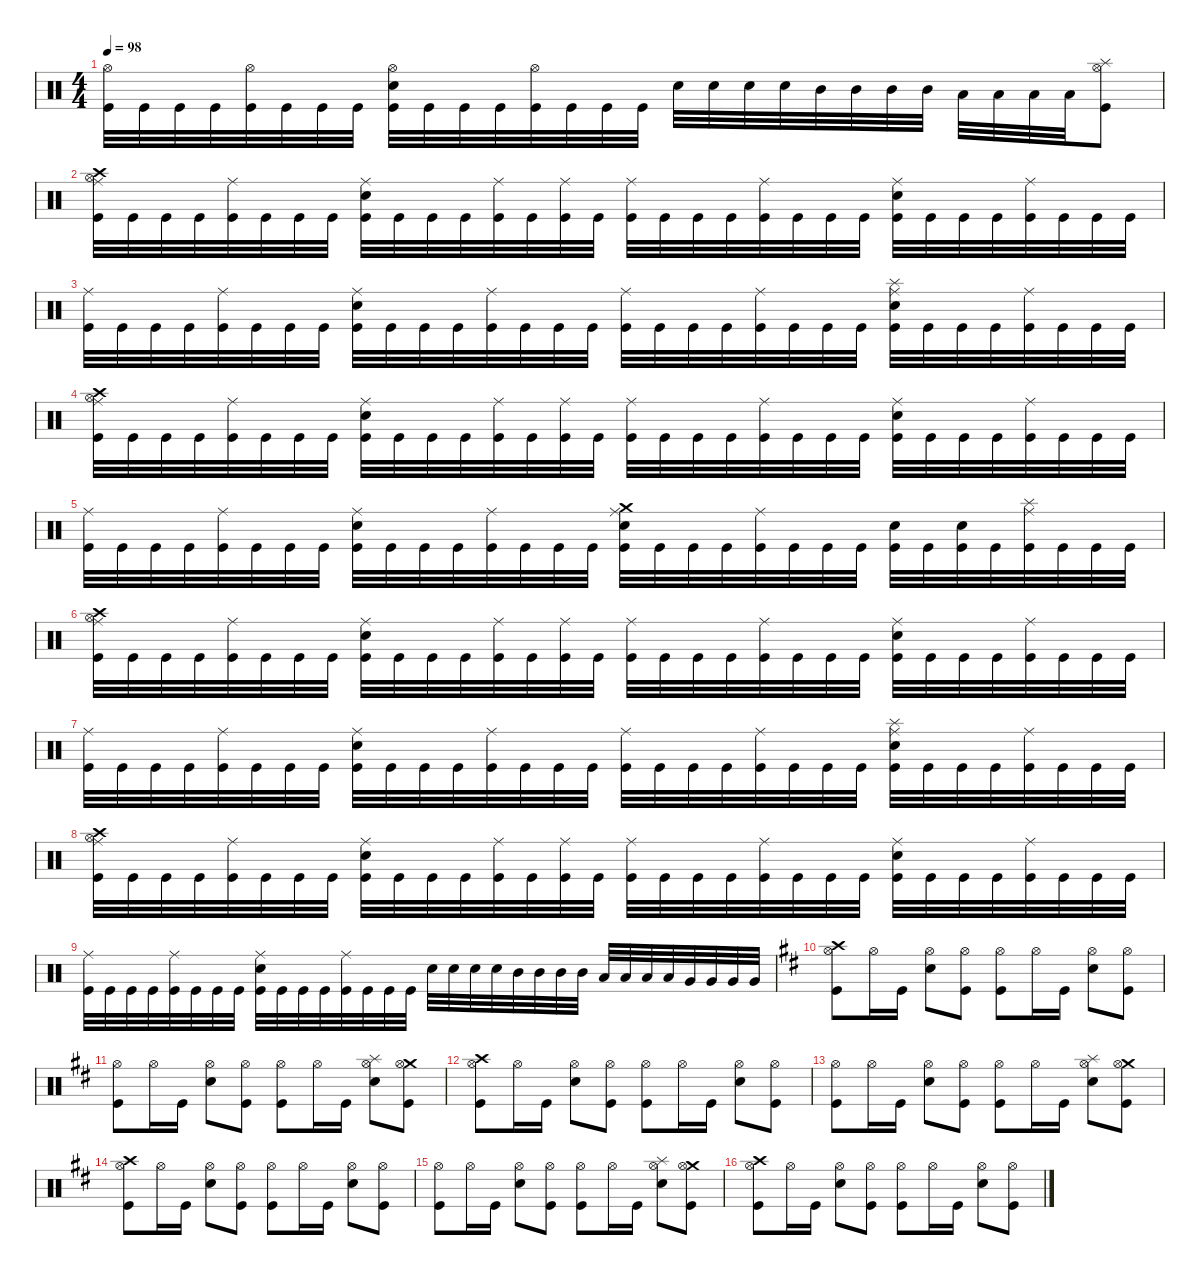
\defaultSystemsLayout 4
\hideDynamics
\bracketExtendMode nobrackets
\singleTrackTrackNamePolicy hidden
\multiTrackTrackNamePolicy hidden
\firstSystemTrackNameMode fullname
\otherSystemsTrackNameOrientation horizontal
\track ("Drums" "drm.") {instrument percussion}
\staff {score}
\articulation defaults
\ts (4 4)
\tempo 98
\clef neutral
\ks c
("Hi-Hat (open)" "Kick (hit)").32{dy f beam Down} "Kick (hit)".32{beam Down} "Kick (hit)".32{beam Down} "Kick (hit)".32{beam Down} ("Hi-Hat (open)" "Kick (hit)").32{beam Down} "Kick (hit)".32{beam Down} "Kick (hit)".32{beam Down} "Kick (hit)".32{beam Down} ("Hi-Hat (open)" "Snare (hit) 2" "Kick (hit)").32{beam Down} "Kick (hit)".32{beam Down} "Kick (hit)".32{beam Down} "Kick (hit)".32{beam Down} ("Hi-Hat (open)" "Kick (hit)").32{beam Down} "Kick (hit)".32{beam Down} "Kick (hit)".32{beam Down} "Kick (hit)".32{beam Down} "Snare (hit) 2".32{beam Down} "Snare (hit) 2".32{beam Down} "Snare (hit) 2".32{beam Down} "Snare (hit) 2".32{dy mp beam Down} "Mid Tom (hit)".32{dy f beam Down} "Mid Tom (hit)".32{beam Down} "Mid Tom (hit)".32{beam Down} "Mid Tom (hit)".32{dy mp beam Down} "Low Tom (hit)".32{dy f beam Down} "Low Tom (hit)".32{beam Down} "Low Tom (hit)".32{beam Down} "Low Tom (hit)".32{dy mp beam Down} ("Splash (hit)" "Hi-Hat (open)" "Kick (hit)").8{dy f beam Down} |
("Crash high (hit)" "Hi-Hat (open)" "Ride (middle)" "Kick (hit)").32{beam Down} "Kick (hit)".32{beam Down} "Kick (hit)".32{beam Down} "Kick (hit)".32{beam Down} ("Ride (middle)" "Kick (hit)").32{beam Down} "Kick (hit)".32{beam Down} "Kick (hit)".32{beam Down} "Kick (hit)".32{beam Down} ("Ride (middle)" "Snare (hit) 2" "Kick (hit)").32{beam Down} "Kick (hit)".32{beam Down} "Kick (hit)".32{beam Down} "Kick (hit)".32{beam Down} ("Ride (middle)" "Kick (hit)").32{beam Down} "Kick (hit)".32{beam Down} ("Ride (middle)" "Kick (hit)").32{beam Down} "Kick (hit)".32{beam Down} ("Ride (middle)" "Kick (hit)").32{beam Down} "Kick (hit)".32{beam Down} "Kick (hit)".32{beam Down} "Kick (hit)".32{beam Down} ("Ride (middle)" "Kick (hit)").32{beam Down} "Kick (hit)".32{beam Down} "Kick (hit)".32{beam Down} "Kick (hit)".32{beam Down} ("Ride (middle)" "Snare (hit) 2" "Kick (hit)").32{beam Down} "Kick (hit)".32{beam Down} "Kick (hit)".32{beam Down} "Kick (hit)".32{beam Down} ("Ride (middle)" "Kick (hit)").32{beam Down} "Kick (hit)".32{beam Down} "Kick (hit)".32{beam Down} "Kick (hit)".32{beam Down} |
("Ride (middle)" "Kick (hit)").32{beam Down} "Kick (hit)".32{beam Down} "Kick (hit)".32{beam Down} "Kick (hit)".32{beam Down} ("Ride (middle)" "Kick (hit)").32{beam Down} "Kick (hit)".32{beam Down} "Kick (hit)".32{beam Down} "Kick (hit)".32{beam Down} ("Ride (middle)" "Snare (hit) 2" "Kick (hit)").32{beam Down} "Kick (hit)".32{beam Down} "Kick (hit)".32{beam Down} "Kick (hit)".32{beam Down} ("Ride (middle)" "Kick (hit)").32{beam Down} "Kick (hit)".32{beam Down} "Kick (hit)".32{beam Down} "Kick (hit)".32{beam Down} ("Ride (middle)" "Kick (hit)").32{beam Down} "Kick (hit)".32{beam Down} "Kick (hit)".32{beam Down} "Kick (hit)".32{beam Down} ("Ride (middle)" "Kick (hit)").32{beam Down} "Kick (hit)".32{beam Down} "Kick (hit)".32{beam Down} "Kick (hit)".32{beam Down} ("Ride (middle)" "Splash (hit)" "Snare (hit) 2" "Kick (hit)").32{beam Down} "Kick (hit)".32{beam Down} "Kick (hit)".32{beam Down} "Kick (hit)".32{beam Down} ("Ride (middle)" "Kick (hit)").32{beam Down} "Kick (hit)".32{beam Down} "Kick (hit)".32{beam Down} "Kick (hit)".32{beam Down} |
("Crash high (hit)" "Hi-Hat (open)" "Ride (middle)" "Kick (hit)").32{beam Down} "Kick (hit)".32{beam Down} "Kick (hit)".32{beam Down} "Kick (hit)".32{beam Down} ("Ride (middle)" "Kick (hit)").32{beam Down} "Kick (hit)".32{beam Down} "Kick (hit)".32{beam Down} "Kick (hit)".32{beam Down} ("Ride (middle)" "Snare (hit) 2" "Kick (hit)").32{beam Down} "Kick (hit)".32{beam Down} "Kick (hit)".32{beam Down} "Kick (hit)".32{beam Down} ("Ride (middle)" "Kick (hit)").32{beam Down} "Kick (hit)".32{beam Down} ("Ride (middle)" "Kick (hit)").32{beam Down} "Kick (hit)".32{beam Down} ("Ride (middle)" "Kick (hit)").32{beam Down} "Kick (hit)".32{beam Down} "Kick (hit)".32{beam Down} "Kick (hit)".32{beam Down} ("Ride (middle)" "Kick (hit)").32{beam Down} "Kick (hit)".32{beam Down} "Kick (hit)".32{beam Down} "Kick (hit)".32{beam Down} ("Ride (middle)" "Snare (hit) 2" "Kick (hit)").32{beam Down} "Kick (hit)".32{beam Down} "Kick (hit)".32{beam Down} "Kick (hit)".32{beam Down} ("Ride (middle)" "Kick (hit)").32{beam Down} "Kick (hit)".32{beam Down} "Kick (hit)".32{beam Down} "Kick (hit)".32{beam Down} |
("Ride (middle)" "Kick (hit)").32{beam Down} "Kick (hit)".32{beam Down} "Kick (hit)".32{beam Down} "Kick (hit)".32{beam Down} ("Ride (middle)" "Kick (hit)").32{beam Down} "Kick (hit)".32{beam Down} "Kick (hit)".32{beam Down} "Kick (hit)".32{beam Down} ("Ride (middle)" "Snare (hit) 2" "Kick (hit)").32{beam Down} "Kick (hit)".32{beam Down} "Kick (hit)".32{beam Down} "Kick (hit)".32{beam Down} ("Ride (middle)" "Kick (hit)").32{beam Down} "Kick (hit)".32{beam Down} "Kick (hit)".32{beam Down} "Kick (hit)".32{beam Down} ("Crash medium (hit)" "Ride (middle)" "Snare (hit) 2" "Kick (hit)").32{beam Down} "Kick (hit)".32{beam Down} "Kick (hit)".32{beam Down} "Kick (hit)".32{beam Down} ("Ride (middle)" "Kick (hit)").32{beam Down} "Kick (hit)".32{beam Down} "Kick (hit)".32{beam Down} "Kick (hit)".32{beam Down} ("Snare (hit) 2" "Kick (hit)").32{beam Down} "Kick (hit)".32{beam Down} ("Snare (hit) 2" "Kick (hit)").32{beam Down} "Kick (hit)".32{beam Down} ("Ride (middle)" "Splash (hit)" "Kick (hit)").32{beam Down} "Kick (hit)".32{beam Down} "Kick (hit)".32{beam Down} "Kick (hit)".32{beam Down} |
("Crash high (hit)" "Hi-Hat (open)" "Ride (middle)" "Kick (hit)").32{beam Down} "Kick (hit)".32{beam Down} "Kick (hit)".32{beam Down} "Kick (hit)".32{beam Down} ("Ride (middle)" "Kick (hit)").32{beam Down} "Kick (hit)".32{beam Down} "Kick (hit)".32{beam Down} "Kick (hit)".32{beam Down} ("Ride (middle)" "Snare (hit) 2" "Kick (hit)").32{beam Down} "Kick (hit)".32{beam Down} "Kick (hit)".32{beam Down} "Kick (hit)".32{beam Down} ("Ride (middle)" "Kick (hit)").32{beam Down} "Kick (hit)".32{beam Down} ("Ride (middle)" "Kick (hit)").32{beam Down} "Kick (hit)".32{beam Down} ("Ride (middle)" "Kick (hit)").32{beam Down} "Kick (hit)".32{beam Down} "Kick (hit)".32{beam Down} "Kick (hit)".32{beam Down} ("Ride (middle)" "Kick (hit)").32{beam Down} "Kick (hit)".32{beam Down} "Kick (hit)".32{beam Down} "Kick (hit)".32{beam Down} ("Ride (middle)" "Snare (hit) 2" "Kick (hit)").32{beam Down} "Kick (hit)".32{beam Down} "Kick (hit)".32{beam Down} "Kick (hit)".32{beam Down} ("Ride (middle)" "Kick (hit)").32{beam Down} "Kick (hit)".32{beam Down} "Kick (hit)".32{beam Down} "Kick (hit)".32{beam Down} |
("Ride (middle)" "Kick (hit)").32{beam Down} "Kick (hit)".32{beam Down} "Kick (hit)".32{beam Down} "Kick (hit)".32{beam Down} ("Ride (middle)" "Kick (hit)").32{beam Down} "Kick (hit)".32{beam Down} "Kick (hit)".32{beam Down} "Kick (hit)".32{beam Down} ("Ride (middle)" "Snare (hit) 2" "Kick (hit)").32{beam Down} "Kick (hit)".32{beam Down} "Kick (hit)".32{beam Down} "Kick (hit)".32{beam Down} ("Ride (middle)" "Kick (hit)").32{beam Down} "Kick (hit)".32{beam Down} "Kick (hit)".32{beam Down} "Kick (hit)".32{beam Down} ("Ride (middle)" "Kick (hit)").32{beam Down} "Kick (hit)".32{beam Down} "Kick (hit)".32{beam Down} "Kick (hit)".32{beam Down} ("Ride (middle)" "Kick (hit)").32{beam Down} "Kick (hit)".32{beam Down} "Kick (hit)".32{beam Down} "Kick (hit)".32{beam Down} ("Ride (middle)" "Splash (hit)" "Snare (hit) 2" "Kick (hit)").32{beam Down} "Kick (hit)".32{beam Down} "Kick (hit)".32{beam Down} "Kick (hit)".32{beam Down} ("Ride (middle)" "Kick (hit)").32{beam Down} "Kick (hit)".32{beam Down} "Kick (hit)".32{beam Down} "Kick (hit)".32{beam Down} |
("Crash high (hit)" "Hi-Hat (open)" "Ride (middle)" "Kick (hit)").32{beam Down} "Kick (hit)".32{beam Down} "Kick (hit)".32{beam Down} "Kick (hit)".32{beam Down} ("Ride (middle)" "Kick (hit)").32{beam Down} "Kick (hit)".32{beam Down} "Kick (hit)".32{beam Down} "Kick (hit)".32{beam Down} ("Ride (middle)" "Snare (hit) 2" "Kick (hit)").32{beam Down} "Kick (hit)".32{beam Down} "Kick (hit)".32{beam Down} "Kick (hit)".32{beam Down} ("Ride (middle)" "Kick (hit)").32{beam Down} "Kick (hit)".32{beam Down} ("Ride (middle)" "Kick (hit)").32{beam Down} "Kick (hit)".32{beam Down} ("Ride (middle)" "Kick (hit)").32{beam Down} "Kick (hit)".32{beam Down} "Kick (hit)".32{beam Down} "Kick (hit)".32{beam Down} ("Ride (middle)" "Kick (hit)").32{beam Down} "Kick (hit)".32{beam Down} "Kick (hit)".32{beam Down} "Kick (hit)".32{beam Down} ("Ride (middle)" "Snare (hit) 2" "Kick (hit)").32{beam Down} "Kick (hit)".32{beam Down} "Kick (hit)".32{beam Down} "Kick (hit)".32{beam Down} ("Ride (middle)" "Kick (hit)").32{beam Down} "Kick (hit)".32{beam Down} "Kick (hit)".32{beam Down} "Kick (hit)".32{beam Down} |
("Ride (middle)" "Kick (hit)").32{beam Down} "Kick (hit)".32{beam Down} "Kick (hit)".32{beam Down} "Kick (hit)".32{beam Down} ("Ride (middle)" "Kick (hit)").32{beam Down} "Kick (hit)".32{beam Down} "Kick (hit)".32{beam Down} "Kick (hit)".32{beam Down} ("Ride (middle)" "Snare (hit) 2" "Kick (hit)").32{beam Down} "Kick (hit)".32{beam Down} "Kick (hit)".32{beam Down} "Kick (hit)".32{beam Down} ("Ride (middle)" "Kick (hit)").32{beam Down} "Kick (hit)".32{beam Down} "Kick (hit)".32{beam Down} "Kick (hit)".32{beam Down} "Snare (hit) 2".32{beam Down} "Snare (hit) 2".32{beam Down} "Snare (hit) 2".32{beam Down} "Snare (hit) 2".32{dy mp beam Down} "Mid Tom (hit)".32{dy f beam Down} "Mid Tom (hit)".32{beam Down} "Mid Tom (hit)".32{beam Down} "Mid Tom (hit)".32{dy mp beam Down} "Low Tom (hit)".32{dy f beam Up} "Low Tom (hit)".32{beam Up} "Low Tom (hit)".32{beam Up} "Low Tom (hit)".32{dy mp beam Up} "Very Low Tom (hit)".32{dy f beam Up} "Very Low Tom (hit)".32{beam Up} "Very Low Tom (hit)".32{beam Up} "Very Low Tom (hit)".32{dy mp beam Up} |
\ks bminor
("Crash high (hit)"{acc forcenatural} "Hi-Hat (open)"{acc forcenatural} "Kick (hit)"{acc forcenatural}).8{dy f beam Down} "Hi-Hat (open)"{acc forcenatural}.16{beam Down} "Kick (hit)"{acc forcenatural}.16{beam Down} ("Hi-Hat (open)"{acc forcenatural} "Snare (hit) 2"{acc forcenatural}).8{beam Down} ("Hi-Hat (open)"{acc forcenatural} "Kick (hit)"{acc forcenatural}).8{beam Down} ("Hi-Hat (open)"{acc forcenatural} "Kick (hit)"{acc forcenatural}).8{beam Down} "Hi-Hat (open)"{acc forcenatural}.16{beam Down} "Kick (hit)"{acc forcenatural}.16{beam Down} ("Hi-Hat (open)"{acc forcenatural} "Snare (hit) 2"{acc forcenatural}).8{beam Down} ("Hi-Hat (open)"{acc forcenatural} "Kick (hit)"{acc forcenatural}).8{beam Down} |
("Hi-Hat (open)"{acc forcenatural} "Kick (hit)"{acc forcenatural}).8{beam Down} "Hi-Hat (open)"{acc forcenatural}.16{beam Down} "Kick (hit)"{acc forcenatural}.16{beam Down} ("Hi-Hat (open)"{acc forcenatural} "Snare (hit) 2"{acc forcenatural}).8{beam Down} ("Hi-Hat (open)"{acc forcenatural} "Kick (hit)"{acc forcenatural}).8{beam Down} ("Hi-Hat (open)"{acc forcenatural} "Kick (hit)"{acc forcenatural}).8{beam Down} "Hi-Hat (open)"{acc forcenatural}.16{beam Down} "Kick (hit)"{acc forcenatural}.16{beam Down} ("Splash (hit)"{acc forcenatural} "Hi-Hat (open)"{acc forcenatural} "Snare (hit) 2"{acc forcenatural}).8{beam Down} ("Crash medium (hit)"{acc forcenatural} "Hi-Hat (open)"{acc forcenatural} "Kick (hit)"{acc forcenatural}).8{beam Down} |
("Crash high (hit)"{acc forcenatural} "Hi-Hat (open)"{acc forcenatural} "Kick (hit)"{acc forcenatural}).8{beam Down} "Hi-Hat (open)"{acc forcenatural}.16{beam Down} "Kick (hit)"{acc forcenatural}.16{beam Down} ("Hi-Hat (open)"{acc forcenatural} "Snare (hit) 2"{acc forcenatural}).8{beam Down} ("Hi-Hat (open)"{acc forcenatural} "Kick (hit)"{acc forcenatural}).8{beam Down} ("Hi-Hat (open)"{acc forcenatural} "Kick (hit)"{acc forcenatural}).8{beam Down} "Hi-Hat (open)"{acc forcenatural}.16{beam Down} "Kick (hit)"{acc forcenatural}.16{beam Down} ("Hi-Hat (open)"{acc forcenatural} "Snare (hit) 2"{acc forcenatural}).8{beam Down} ("Hi-Hat (open)"{acc forcenatural} "Kick (hit)"{acc forcenatural}).8{beam Down} |
("Hi-Hat (open)"{acc forcenatural} "Kick (hit)"{acc forcenatural}).8{beam Down} "Hi-Hat (open)"{acc forcenatural}.16{beam Down} "Kick (hit)"{acc forcenatural}.16{beam Down} ("Hi-Hat (open)"{acc forcenatural} "Snare (hit) 2"{acc forcenatural}).8{beam Down} ("Hi-Hat (open)"{acc forcenatural} "Kick (hit)"{acc forcenatural}).8{beam Down} ("Hi-Hat (open)"{acc forcenatural} "Kick (hit)"{acc forcenatural}).8{beam Down} "Hi-Hat (open)"{acc forcenatural}.16{beam Down} "Kick (hit)"{acc forcenatural}.16{beam Down} ("Splash (hit)"{acc forcenatural} "Hi-Hat (open)"{acc forcenatural} "Snare (hit) 2"{acc forcenatural}).8{beam Down} ("Crash medium (hit)"{acc forcenatural} "Hi-Hat (open)"{acc forcenatural} "Kick (hit)"{acc forcenatural}).8{beam Down} |
("Crash high (hit)"{acc forcenatural} "Hi-Hat (open)"{acc forcenatural} "Kick (hit)"{acc forcenatural}).8{beam Down} "Hi-Hat (open)"{acc forcenatural}.16{beam Down} "Kick (hit)"{acc forcenatural}.16{beam Down} ("Hi-Hat (open)"{acc forcenatural} "Snare (hit) 2"{acc forcenatural}).8{beam Down} ("Hi-Hat (open)"{acc forcenatural} "Kick (hit)"{acc forcenatural}).8{beam Down} ("Hi-Hat (open)"{acc forcenatural} "Kick (hit)"{acc forcenatural}).8{beam Down} "Hi-Hat (open)"{acc forcenatural}.16{beam Down} "Kick (hit)"{acc forcenatural}.16{beam Down} ("Hi-Hat (open)"{acc forcenatural} "Snare (hit) 2"{acc forcenatural}).8{beam Down} ("Hi-Hat (open)"{acc forcenatural} "Kick (hit)"{acc forcenatural}).8{beam Down} |
("Hi-Hat (open)"{acc forcenatural} "Kick (hit)"{acc forcenatural}).8{beam Down} "Hi-Hat (open)"{acc forcenatural}.16{beam Down} "Kick (hit)"{acc forcenatural}.16{beam Down} ("Hi-Hat (open)"{acc forcenatural} "Snare (hit) 2"{acc forcenatural}).8{beam Down} ("Hi-Hat (open)"{acc forcenatural} "Kick (hit)"{acc forcenatural}).8{beam Down} ("Hi-Hat (open)"{acc forcenatural} "Kick (hit)"{acc forcenatural}).8{beam Down} "Hi-Hat (open)"{acc forcenatural}.16{beam Down} "Kick (hit)"{acc forcenatural}.16{beam Down} ("Splash (hit)"{acc forcenatural} "Hi-Hat (open)"{acc forcenatural} "Snare (hit) 2"{acc forcenatural}).8{beam Down} ("Crash medium (hit)"{acc forcenatural} "Hi-Hat (open)"{acc forcenatural} "Kick (hit)"{acc forcenatural}).8{beam Down} |
("Crash high (hit)"{acc forcenatural} "Hi-Hat (open)"{acc forcenatural} "Kick (hit)"{acc forcenatural}).8{beam Down} "Hi-Hat (open)"{acc forcenatural}.16{beam Down} "Kick (hit)"{acc forcenatural}.16{beam Down} ("Hi-Hat (open)"{acc forcenatural} "Snare (hit) 2"{acc forcenatural}).8{beam Down} ("Hi-Hat (open)"{acc forcenatural} "Kick (hit)"{acc forcenatural}).8{beam Down} ("Hi-Hat (open)"{acc forcenatural} "Kick (hit)"{acc forcenatural}).8{beam Down} "Hi-Hat (open)"{acc forcenatural}.16{beam Down} "Kick (hit)"{acc forcenatural}.16{beam Down} ("Hi-Hat (open)"{acc forcenatural} "Snare (hit) 2"{acc forcenatural}).8{beam Down} ("Hi-Hat (open)"{acc forcenatural} "Kick (hit)"{acc forcenatural}).8{beam Down}
